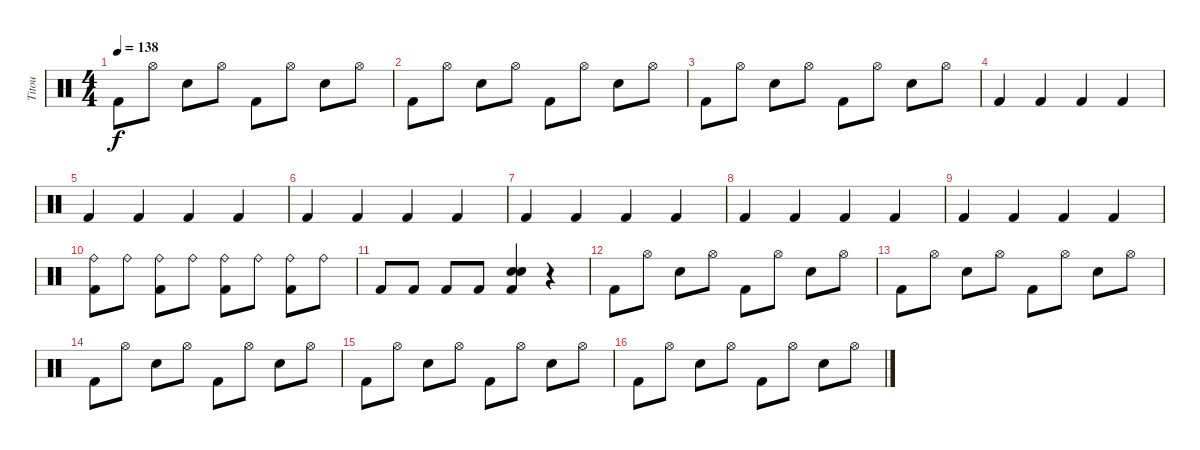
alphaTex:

\track ("Titou" "Titou") {instrument percussion}
\staff {score}
\articulation defaults
\ts (4 4)
\tempo 138
\clef neutral
\ks c "Kick (hit) 2".8{dy f} "Hi-Hat (open)".8 "Electric Snare (hit)".8 "Hi-Hat (open)".8 "Kick (hit) 2".8 "Hi-Hat (open)".8 "Electric Snare (hit)".8 "Hi-Hat (open)".8
|
"Kick (hit) 2".8 "Hi-Hat (open)".8 "Electric Snare (hit)".8 "Hi-Hat (open)".8 "Kick (hit) 2".8 "Hi-Hat (open)".8 "Electric Snare (hit)".8 "Hi-Hat (open)".8 |
"Kick (hit) 2".8 "Hi-Hat (open)".8 "Electric Snare (hit)".8 "Hi-Hat (open)".8 "Kick (hit) 2".8 "Hi-Hat (open)".8 "Electric Snare (hit)".8 "Hi-Hat (open)".8 |
"Kick (hit) 2".4 "Kick (hit) 2".4 "Kick (hit) 2".4 "Kick (hit) 2".4 |
"Kick (hit) 2".4 "Kick (hit) 2".4 "Kick (hit) 2".4 "Kick (hit) 2".4 |
"Kick (hit) 2".4 "Kick (hit) 2".4 "Kick (hit) 2".4 "Kick (hit) 2".4 |
"Kick (hit) 2".4 "Kick (hit) 2".4 "Kick (hit) 2".4 "Kick (hit) 2".4 |
"Kick (hit) 2".4 "Kick (hit) 2".4 "Kick (hit) 2".4 "Kick (hit) 2".4 |
"Kick (hit) 2".4 "Kick (hit) 2".4 "Kick (hit) 2".4 "Kick (hit) 2".4 |
("Ride (bell)" "Kick (hit) 2").8 "Ride (bell)".8 ("Ride (bell)" "Kick (hit) 2").8 "Ride (bell)".8 ("Ride (bell)" "Kick (hit) 2").8 "Ride (bell)".8 ("Ride (bell)" "Kick (hit) 2").8 "Ride (bell)".8 |
"Kick (hit) 2".8 "Kick (hit) 2".8 "Kick (hit) 2".8 "Kick (hit) 2".8 ("Electric Snare (hit)" "Kick (hit) 2" "Electric Snare (hit)").4 r.4 |
"Kick (hit) 2".8 "Hi-Hat (open)".8 "Electric Snare (hit)".8 "Hi-Hat (open)".8 "Kick (hit) 2".8 "Hi-Hat (open)".8 "Electric Snare (hit)".8 "Hi-Hat (open)".8 |
"Kick (hit) 2".8 "Hi-Hat (open)".8 "Electric Snare (hit)".8 "Hi-Hat (open)".8 "Kick (hit) 2".8 "Hi-Hat (open)".8 "Electric Snare (hit)".8 "Hi-Hat (open)".8 |
"Kick (hit) 2".8 "Hi-Hat (open)".8 "Electric Snare (hit)".8 "Hi-Hat (open)".8 "Kick (hit) 2".8 "Hi-Hat (open)".8 "Electric Snare (hit)".8 "Hi-Hat (open)".8 |
"Kick (hit) 2".8 "Hi-Hat (open)".8 "Electric Snare (hit)".8 "Hi-Hat (open)".8 "Kick (hit) 2".8 "Hi-Hat (open)".8 "Electric Snare (hit)".8 "Hi-Hat (open)".8 |
"Kick (hit) 2".8 "Hi-Hat (open)".8 "Electric Snare (hit)".8 "Hi-Hat (open)".8 "Kick (hit) 2".8 "Hi-Hat (open)".8 "Electric Snare (hit)".8 "Hi-Hat (open)".8
